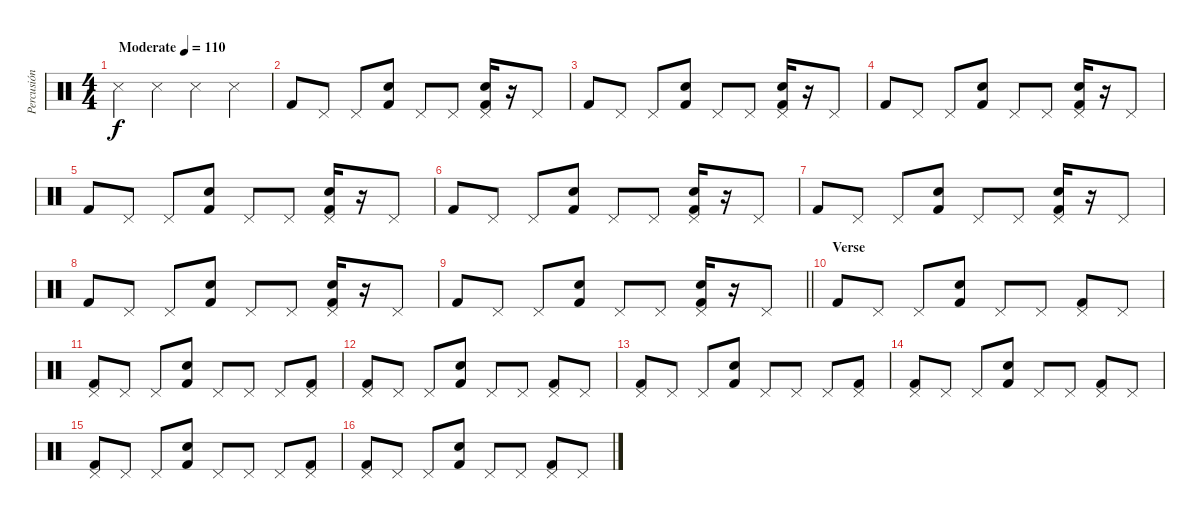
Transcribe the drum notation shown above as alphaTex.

\track ("Percusión" "Percusión") {instrument percussion}
\staff {score}
\articulation defaults
\ts (4 4)
\tempo (110 "Moderate")
\clef neutral
\ks c "Snare (side stick) 3".4{dy f} "Snare (side stick) 3".4 "Snare (side stick) 3".4 "Snare (side stick) 3".4
|
"Kick (hit) 2".8 "Pedal Hi-Hat (hit)".8 "Pedal Hi-Hat (hit)".8 ("Electric Snare (hit)" "Kick (hit) 2").8 "Pedal Hi-Hat (hit)".8 "Pedal Hi-Hat (hit)".8 ("Hand Clap (hit)" "Pedal Hi-Hat (hit)" "Kick (hit) 2").16{bd 60} r.16 "Pedal Hi-Hat (hit)".8 |
"Kick (hit) 2".8 "Pedal Hi-Hat (hit)".8 "Pedal Hi-Hat (hit)".8 ("Electric Snare (hit)" "Kick (hit) 2").8 "Pedal Hi-Hat (hit)".8 "Pedal Hi-Hat (hit)".8 ("Hand Clap (hit)" "Pedal Hi-Hat (hit)" "Kick (hit) 2").16{bd 60} r.16 "Pedal Hi-Hat (hit)".8 |
"Kick (hit) 2".8 "Pedal Hi-Hat (hit)".8 "Pedal Hi-Hat (hit)".8 ("Electric Snare (hit)" "Kick (hit) 2").8 "Pedal Hi-Hat (hit)".8 "Pedal Hi-Hat (hit)".8 ("Hand Clap (hit)" "Pedal Hi-Hat (hit)" "Kick (hit) 2").16{bd 60} r.16 "Pedal Hi-Hat (hit)".8 |
"Kick (hit) 2".8 "Pedal Hi-Hat (hit)".8 "Pedal Hi-Hat (hit)".8 ("Electric Snare (hit)" "Kick (hit) 2").8 "Pedal Hi-Hat (hit)".8 "Pedal Hi-Hat (hit)".8 ("Hand Clap (hit)" "Pedal Hi-Hat (hit)" "Kick (hit) 2").16{bd 60} r.16 "Pedal Hi-Hat (hit)".8 |
"Kick (hit) 2".8 "Pedal Hi-Hat (hit)".8 "Pedal Hi-Hat (hit)".8 ("Electric Snare (hit)" "Kick (hit) 2").8 "Pedal Hi-Hat (hit)".8 "Pedal Hi-Hat (hit)".8 ("Hand Clap (hit)" "Pedal Hi-Hat (hit)" "Kick (hit) 2").16{bd 60} r.16 "Pedal Hi-Hat (hit)".8 |
"Kick (hit) 2".8 "Pedal Hi-Hat (hit)".8 "Pedal Hi-Hat (hit)".8 ("Electric Snare (hit)" "Kick (hit) 2").8 "Pedal Hi-Hat (hit)".8 "Pedal Hi-Hat (hit)".8 ("Hand Clap (hit)" "Pedal Hi-Hat (hit)" "Kick (hit) 2").16{bd 60} r.16 "Pedal Hi-Hat (hit)".8 |
"Kick (hit) 2".8 "Pedal Hi-Hat (hit)".8 "Pedal Hi-Hat (hit)".8 ("Electric Snare (hit)" "Kick (hit) 2").8 "Pedal Hi-Hat (hit)".8 "Pedal Hi-Hat (hit)".8 ("Hand Clap (hit)" "Pedal Hi-Hat (hit)" "Kick (hit) 2").16{bd 60} r.16 "Pedal Hi-Hat (hit)".8 |
\barLineRight lightlight "Kick (hit) 2".8 "Pedal Hi-Hat (hit)".8 "Pedal Hi-Hat (hit)".8
("Electric Snare (hit)" "Kick (hit) 2").8 "Pedal Hi-Hat (hit)".8 "Pedal Hi-Hat (hit)".8 ("Hand Clap (hit)" "Pedal Hi-Hat (hit)" "Kick (hit) 2").16{bd 60} r.16 "Pedal Hi-Hat (hit)".8 |
\section ("" "Verse ")
"Kick (hit) 2".8 "Pedal Hi-Hat (hit)".8 "Pedal Hi-Hat (hit)".8 ("Electric Snare (hit)" "Kick (hit) 2").8 "Pedal Hi-Hat (hit)".8 "Pedal Hi-Hat (hit)".8 ("Pedal Hi-Hat (hit)" "Kick (hit) 2").8 "Pedal Hi-Hat (hit)".8 |
("Pedal Hi-Hat (hit)" "Kick (hit) 2").8 "Pedal Hi-Hat (hit)".8 "Pedal Hi-Hat (hit)".8 ("Electric Snare (hit)" "Kick (hit) 2").8 "Pedal Hi-Hat (hit)".8 "Pedal Hi-Hat (hit)".8 "Pedal Hi-Hat (hit)".8 ("Pedal Hi-Hat (hit)" "Kick (hit) 2").8 |
("Pedal Hi-Hat (hit)" "Kick (hit) 2").8 "Pedal Hi-Hat (hit)".8 "Pedal Hi-Hat (hit)".8 ("Electric Snare (hit)" "Kick (hit) 2").8 "Pedal Hi-Hat (hit)".8 "Pedal Hi-Hat (hit)".8 ("Pedal Hi-Hat (hit)" "Kick (hit) 2").8 "Pedal Hi-Hat (hit)".8 |
("Pedal Hi-Hat (hit)" "Kick (hit) 2").8 "Pedal Hi-Hat (hit)".8 "Pedal Hi-Hat (hit)".8 ("Electric Snare (hit)" "Kick (hit) 2").8 "Pedal Hi-Hat (hit)".8 "Pedal Hi-Hat (hit)".8 "Pedal Hi-Hat (hit)".8 ("Pedal Hi-Hat (hit)" "Kick (hit) 2").8 |
("Pedal Hi-Hat (hit)" "Kick (hit) 2").8 "Pedal Hi-Hat (hit)".8 "Pedal Hi-Hat (hit)".8 ("Electric Snare (hit)" "Kick (hit) 2").8 "Pedal Hi-Hat (hit)".8 "Pedal Hi-Hat (hit)".8 ("Pedal Hi-Hat (hit)" "Kick (hit) 2").8 "Pedal Hi-Hat (hit)".8 |
("Pedal Hi-Hat (hit)" "Kick (hit) 2").8 "Pedal Hi-Hat (hit)".8 "Pedal Hi-Hat (hit)".8 ("Electric Snare (hit)" "Kick (hit) 2").8 "Pedal Hi-Hat (hit)".8 "Pedal Hi-Hat (hit)".8 "Pedal Hi-Hat (hit)".8 ("Pedal Hi-Hat (hit)" "Kick (hit) 2").8 |
("Pedal Hi-Hat (hit)" "Kick (hit) 2").8 "Pedal Hi-Hat (hit)".8 "Pedal Hi-Hat (hit)".8 ("Electric Snare (hit)" "Kick (hit) 2").8 "Pedal Hi-Hat (hit)".8 "Pedal Hi-Hat (hit)".8 ("Pedal Hi-Hat (hit)" "Kick (hit) 2").8 "Pedal Hi-Hat (hit)".8
